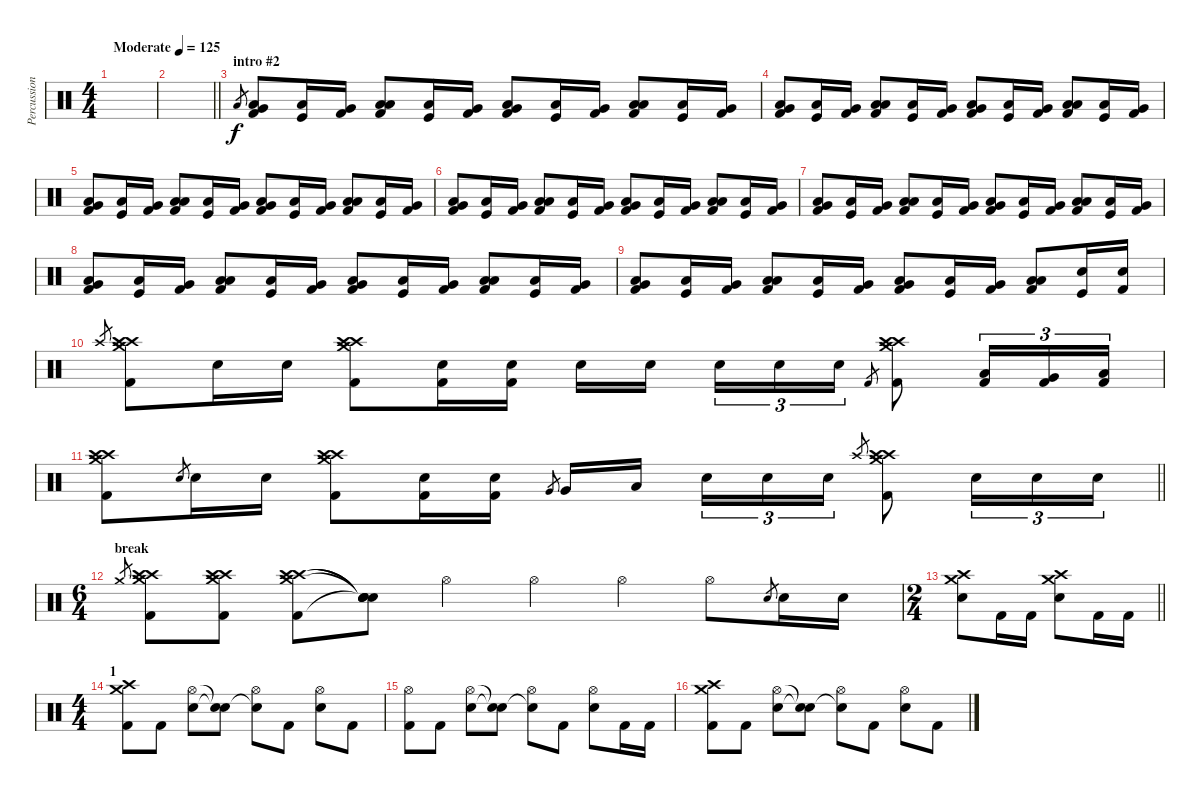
\track ("Percussion" "Percussion") {instrument percussion}
\staff {score}
\articulation defaults
\ts (4 4)
\tempo (125 "Moderate")
\clef neutral
\ks c
|
\barLineRight lightlight
|
\section ("" "intro #2")
"Low Floor Tom (hit)".8{gr} ("Low Floor Tom (hit)" "Very Low Tom (hit)" "Kick (hit) 2").8 ("Low Tom (hit)" "Kick (hit)").16 ("Very Low Tom (hit)" "Kick (hit) 2").16 ("Low Floor Tom (hit)" "Low Tom (hit)" "Kick (hit) 2").8 ("Low Tom (hit)" "Kick (hit)").16 ("Very Low Tom (hit)" "Kick (hit) 2").16 ("Low Floor Tom (hit)" "Very Low Tom (hit)" "Kick (hit) 2").8 ("Low Tom (hit)" "Kick (hit)").16 ("Very Low Tom (hit)" "Kick (hit) 2").16 ("Low Floor Tom (hit)" "Low Tom (hit)" "Kick (hit) 2").8 ("Low Tom (hit)" "Kick (hit)").16 ("Very Low Tom (hit)" "Kick (hit) 2").16 |
("Low Floor Tom (hit)" "Very Low Tom (hit)" "Kick (hit) 2").8 ("Low Tom (hit)" "Kick (hit)").16 ("Very Low Tom (hit)" "Kick (hit) 2").16 ("Low Floor Tom (hit)" "Low Tom (hit)" "Kick (hit) 2").8 ("Low Tom (hit)" "Kick (hit)").16 ("Very Low Tom (hit)" "Kick (hit) 2").16 ("Low Floor Tom (hit)" "Very Low Tom (hit)" "Kick (hit) 2").8 ("Low Tom (hit)" "Kick (hit)").16 ("Very Low Tom (hit)" "Kick (hit) 2").16 ("Low Floor Tom (hit)" "Low Tom (hit)" "Kick (hit) 2").8 ("Low Tom (hit)" "Kick (hit)").16 ("Very Low Tom (hit)" "Kick (hit) 2").16 |
("Low Floor Tom (hit)" "Very Low Tom (hit)" "Kick (hit) 2").8 ("Low Tom (hit)" "Kick (hit)").16 ("Very Low Tom (hit)" "Kick (hit) 2").16 ("Low Floor Tom (hit)" "Low Tom (hit)" "Kick (hit) 2").8 ("Low Tom (hit)" "Kick (hit)").16 ("Very Low Tom (hit)" "Kick (hit) 2").16 ("Low Floor Tom (hit)" "Very Low Tom (hit)" "Kick (hit) 2").8 ("Low Tom (hit)" "Kick (hit)").16 ("Very Low Tom (hit)" "Kick (hit) 2").16 ("Low Floor Tom (hit)" "Low Tom (hit)" "Kick (hit) 2").8 ("Low Tom (hit)" "Kick (hit)").16 ("Very Low Tom (hit)" "Kick (hit) 2").16 |
("Low Floor Tom (hit)" "Very Low Tom (hit)" "Kick (hit) 2").8 ("Low Tom (hit)" "Kick (hit)").16 ("Very Low Tom (hit)" "Kick (hit) 2").16 ("Low Floor Tom (hit)" "Low Tom (hit)" "Kick (hit) 2").8 ("Low Tom (hit)" "Kick (hit)").16 ("Very Low Tom (hit)" "Kick (hit) 2").16 ("Low Floor Tom (hit)" "Very Low Tom (hit)" "Kick (hit) 2").8 ("Low Tom (hit)" "Kick (hit)").16 ("Very Low Tom (hit)" "Kick (hit) 2").16 ("Low Floor Tom (hit)" "Low Tom (hit)" "Kick (hit) 2").8 ("Low Tom (hit)" "Kick (hit)").16 ("Very Low Tom (hit)" "Kick (hit) 2").16 |
("Low Floor Tom (hit)" "Very Low Tom (hit)" "Kick (hit) 2").8 ("Low Tom (hit)" "Kick (hit)").16 ("Very Low Tom (hit)" "Kick (hit) 2").16 ("Low Floor Tom (hit)" "Low Tom (hit)" "Kick (hit) 2").8 ("Low Tom (hit)" "Kick (hit)").16 ("Very Low Tom (hit)" "Kick (hit) 2").16 ("Low Floor Tom (hit)" "Very Low Tom (hit)" "Kick (hit) 2").8 ("Low Tom (hit)" "Kick (hit)").16 ("Very Low Tom (hit)" "Kick (hit) 2").16 ("Low Floor Tom (hit)" "Low Tom (hit)" "Kick (hit) 2").8 ("Low Tom (hit)" "Kick (hit)").16 ("Very Low Tom (hit)" "Kick (hit) 2").16 |
("Low Floor Tom (hit)" "Very Low Tom (hit)" "Kick (hit) 2").8 ("Low Tom (hit)" "Kick (hit)").16 ("Very Low Tom (hit)" "Kick (hit) 2").16 ("Low Floor Tom (hit)" "Low Tom (hit)" "Kick (hit) 2").8 ("Low Tom (hit)" "Kick (hit)").16 ("Very Low Tom (hit)" "Kick (hit) 2").16 ("Low Floor Tom (hit)" "Very Low Tom (hit)" "Kick (hit) 2").8 ("Low Tom (hit)" "Kick (hit)").16 ("Very Low Tom (hit)" "Kick (hit) 2").16 ("Low Floor Tom (hit)" "Low Tom (hit)" "Kick (hit) 2").8 ("Low Tom (hit)" "Kick (hit)").16 ("Very Low Tom (hit)" "Kick (hit) 2").16 |
("Low Floor Tom (hit)" "Very Low Tom (hit)" "Kick (hit) 2").8 ("Low Tom (hit)" "Kick (hit)").16 ("Very Low Tom (hit)" "Kick (hit) 2").16 ("Low Floor Tom (hit)" "Low Tom (hit)" "Kick (hit) 2").8 ("Low Tom (hit)" "Kick (hit)").16 ("Very Low Tom (hit)" "Kick (hit) 2").16 ("Low Floor Tom (hit)" "Very Low Tom (hit)" "Kick (hit) 2").8 ("Low Tom (hit)" "Kick (hit)").16 ("Very Low Tom (hit)" "Kick (hit) 2").16 ("Low Floor Tom (hit)" "Low Tom (hit)" "Kick (hit) 2").8 ("Snare (hit) 2" "Kick (hit)").16 ("Snare (hit) 2" "Kick (hit) 2").16 |
"Crash high (hit)".8{gr} ("Crash high (hit)" "Crash medium (hit)" "Crash high (hit)" "Kick (hit) 2").8 "Snare (hit) 2".16 "Snare (hit) 2".16 ("Crash high (hit)" "Crash medium (hit)" "Crash high (hit)" "Kick (hit) 2").8 ("Snare (hit) 2" "Kick (hit) 2").16 ("Snare (hit) 2" "Kick (hit) 2").16 "Snare (hit) 2".16 "Snare (hit) 2".16{beam splitsecondary} "Snare (hit) 2".16{tu (3 2)} "Snare (hit) 2".16{tu (3 2)} "Snare (hit) 2".16{tu (3 2)} "Kick (hit) 2".8{gr} ("Crash high (hit)" "Crash medium (hit)" "Crash high (hit)" "Kick (hit) 2").8 ("Low Tom (hit)" "Kick (hit) 2").16{tu (3 2)} ("Very Low Tom (hit)" "Kick (hit) 2").16{tu (3 2)} ("Low Floor Tom (hit)" "Kick (hit) 2").16{tu (3 2)} |
\barLineRight lightlight
("Crash high (hit)" "Crash medium (hit)" "Crash high (hit)" "Kick (hit) 2").8 "Snare (hit) 2".8{gr} "Snare (hit) 2".16 "Snare (hit) 2".16 ("Crash high (hit)" "Crash medium (hit)" "Crash high (hit)" "Kick (hit) 2").8 ("Snare (hit) 2" "Kick (hit) 2").16 ("Snare (hit) 2" "Kick (hit) 2").16 "Very Low Tom (hit)".8{gr} "Very Low Tom (hit)".16 "Low Floor Tom (hit)".16{beam splitsecondary} "Snare (hit) 2".16{tu (3 2)} "Snare (hit) 2".16{tu (3 2)} "Snare (hit) 2".16{tu (3 2)} "Crash high (hit)".8{gr} ("Crash high (hit)" "Crash medium (hit)" "Crash high (hit)" "Kick (hit) 2").8 "Snare (hit) 2".16{tu (3 2)} "Snare (hit) 2".16{tu (3 2)} "Snare (hit) 2".16{tu (3 2)} |
\ts (6 4)
\section ("" "break")
"Crash medium (hit)".8{gr} ("Crash high (hit)" "Crash medium (hit)" "Crash high (hit)" "Kick (hit) 2").8 ("Crash high (hit)" "Crash medium (hit)" "Crash high (hit)" "Kick (hit) 2").8 ("Crash high (hit)" "Crash medium (hit)" "Crash high (hit)" "Kick (hit) 2").8 ("Snare (hit)"{t} "Snare (hit)"{t} "Snare (hit)"{t} "Snare (hit)"{t}).8 "Hi-Hat (open)".4 "Hi-Hat (open)".4 "Hi-Hat (open)".4 "Hi-Hat (open)".8 "Snare (hit) 2".8{gr} "Snare (hit) 2".16 "Snare (hit) 2".16 |
\ts (2 4)
\barLineRight lightlight
("Crash medium (hit)" "Crash high (hit)" "Snare (hit) 2").8 "Kick (hit) 2".16 "Kick (hit) 2".16 ("Crash high (hit)" "Crash medium (hit)" "Snare (hit) 2").8 "Kick (hit) 2".16 "Kick (hit) 2".16 |
\ts (4 4)
\section ("" "1")
("Crash medium (hit)" "Crash high (hit)" "Kick (hit) 2").8 "Kick (hit) 2".8 ("Hi-Hat (open)" "Snare (hit) 2").8 ("Snare (hit)"{t} "Snare (hit)"{t}).8 ("Hi-Hat (open)" "Snare (hit)"{t}).8 "Kick (hit) 2".8 ("Hi-Hat (open)" "Snare (hit) 2").8 "Kick (hit) 2".8 |
("Hi-Hat (open)" "Kick (hit) 2").8 "Kick (hit) 2".8 ("Hi-Hat (open)" "Snare (hit) 2").8 ("Snare (hit)"{t} "Snare (hit)"{t}).8 ("Hi-Hat (open)" "Snare (hit)"{t}).8 "Kick (hit) 2".8 ("Hi-Hat (open)" "Snare (hit) 2").8 "Kick (hit) 2".16 "Kick (hit) 2".16 |
("Crash medium (hit)" "Crash high (hit)" "Kick (hit) 2").8 "Kick (hit) 2".8 ("Hi-Hat (open)" "Snare (hit) 2").8 ("Snare (hit)"{t} "Snare (hit)"{t}).8 ("Hi-Hat (open)" "Snare (hit)"{t}).8 "Kick (hit) 2".8 ("Hi-Hat (open)" "Snare (hit) 2").8 "Kick (hit) 2".8
